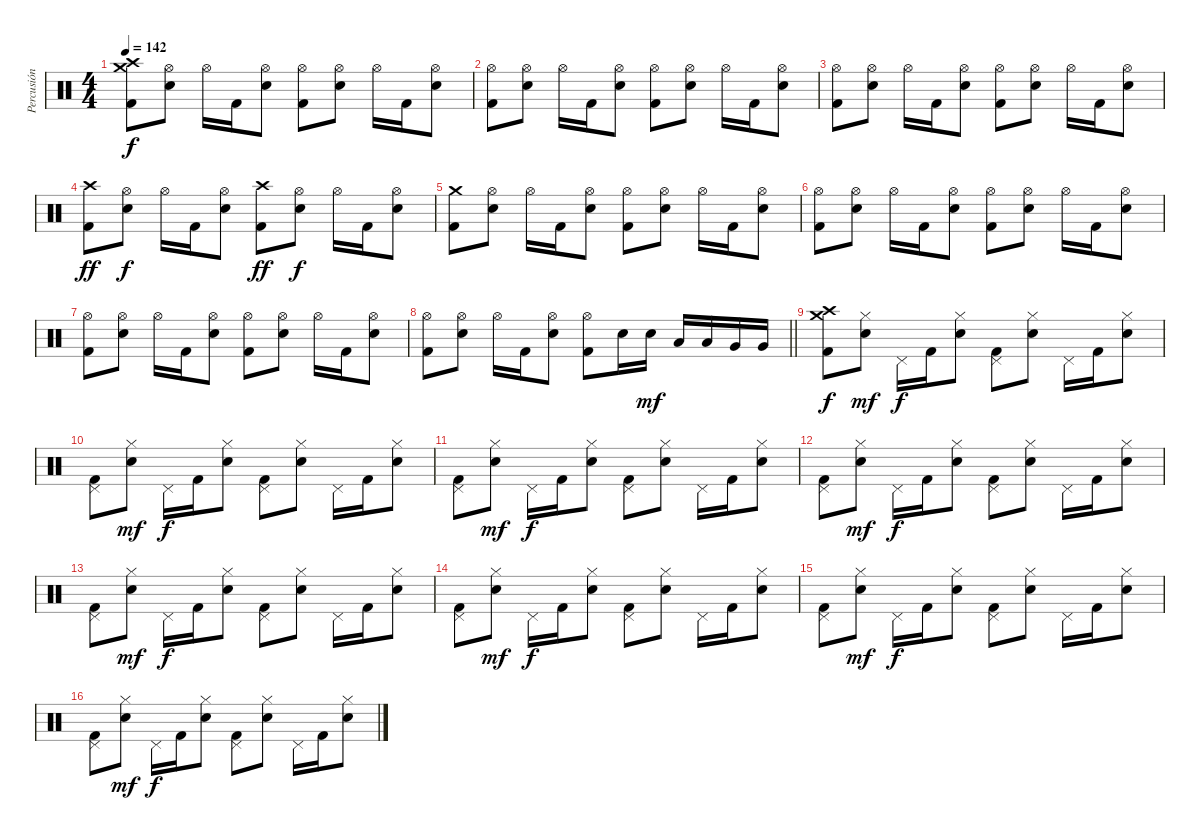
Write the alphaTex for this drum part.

\track ("Percusión" "Percusión") {instrument percussion}
\staff {score}
\articulation defaults
\ts (4 4)
\tempo 142
\clef neutral
\ks c
("Crash high (hit)" "Crash medium (hit)" "Kick (hit) 2").8{dy f} ("Hi-Hat (open)" "Electric Snare (hit)").8 "Hi-Hat (open)".16 "Kick (hit) 2".16 ("Hi-Hat (open)" "Electric Snare (hit)").8 ("Hi-Hat (open)" "Kick (hit) 2").8 ("Hi-Hat (open)" "Electric Snare (hit)").8 "Hi-Hat (open)".16 "Kick (hit) 2".16 ("Hi-Hat (open)" "Electric Snare (hit)").8 |
("Hi-Hat (open)" "Kick (hit) 2").8 ("Hi-Hat (open)" "Electric Snare (hit)").8 "Hi-Hat (open)".16 "Kick (hit) 2".16 ("Hi-Hat (open)" "Electric Snare (hit)").8 ("Hi-Hat (open)" "Kick (hit) 2").8 ("Hi-Hat (open)" "Electric Snare (hit)").8 "Hi-Hat (open)".16 "Kick (hit) 2".16 ("Hi-Hat (open)" "Electric Snare (hit)").8 |
("Hi-Hat (open)" "Kick (hit) 2").8 ("Hi-Hat (open)" "Electric Snare (hit)").8 "Hi-Hat (open)".16 "Kick (hit) 2".16 ("Hi-Hat (open)" "Electric Snare (hit)").8 ("Hi-Hat (open)" "Kick (hit) 2").8 ("Hi-Hat (open)" "Electric Snare (hit)").8 "Hi-Hat (open)".16 "Kick (hit) 2".16 ("Hi-Hat (open)" "Electric Snare (hit)").8 |
("Crash high (hit)" "Kick (hit) 2").8{dy ff} ("Hi-Hat (open)" "Electric Snare (hit)").8{dy f} "Hi-Hat (open)".16 "Kick (hit) 2".16 ("Hi-Hat (open)" "Electric Snare (hit)").8 ("Crash high (hit)" "Kick (hit) 2").8{dy ff} ("Hi-Hat (open)" "Electric Snare (hit)").8{dy f} "Hi-Hat (open)".16 "Kick (hit) 2".16 ("Hi-Hat (open)" "Electric Snare (hit)").8 |
("Crash medium (hit)" "Kick (hit) 2").8 ("Hi-Hat (open)" "Electric Snare (hit)").8 "Hi-Hat (open)".16 "Kick (hit) 2".16 ("Hi-Hat (open)" "Electric Snare (hit)").8 ("Hi-Hat (open)" "Kick (hit) 2").8 ("Hi-Hat (open)" "Electric Snare (hit)").8 "Hi-Hat (open)".16 "Kick (hit) 2".16 ("Hi-Hat (open)" "Electric Snare (hit)").8 |
("Hi-Hat (open)" "Kick (hit) 2").8 ("Hi-Hat (open)" "Electric Snare (hit)").8 "Hi-Hat (open)".16 "Kick (hit) 2".16 ("Hi-Hat (open)" "Electric Snare (hit)").8 ("Hi-Hat (open)" "Kick (hit) 2").8 ("Hi-Hat (open)" "Electric Snare (hit)").8 "Hi-Hat (open)".16 "Kick (hit) 2".16 ("Hi-Hat (open)" "Electric Snare (hit)").8 |
("Hi-Hat (open)" "Kick (hit) 2").8 ("Hi-Hat (open)" "Electric Snare (hit)").8 "Hi-Hat (open)".16 "Kick (hit) 2".16 ("Hi-Hat (open)" "Electric Snare (hit)").8 ("Hi-Hat (open)" "Kick (hit) 2").8 ("Hi-Hat (open)" "Electric Snare (hit)").8 "Hi-Hat (open)".16 "Kick (hit) 2".16 ("Hi-Hat (open)" "Electric Snare (hit)").8 |
\barLineRight lightlight
("Hi-Hat (open)" "Kick (hit) 2").8 ("Hi-Hat (open)" "Electric Snare (hit)").8 "Hi-Hat (open)".16 "Kick (hit) 2".16 ("Hi-Hat (open)" "Electric Snare (hit)").8 ("Hi-Hat (open)" "Kick (hit) 2").8 "Electric Snare (hit)".16 "Electric Snare (hit)".16{dy mf} "Low Tom (hit)".16 "Low Tom (hit)".16 "Very Low Tom (hit)".16 "Very Low Tom (hit)".16 |
\section ("" "")
("Crash high (hit)" "Crash medium (hit)" "Kick (hit) 2").8{dy f} ("Hi-Hat (closed)" "Electric Snare (hit)").8{dy mf} "Pedal Hi-Hat (hit)".16{dy f} "Kick (hit) 2".16 ("Hi-Hat (closed)" "Electric Snare (hit)").8 ("Pedal Hi-Hat (hit)" "Kick (hit) 2").8 ("Hi-Hat (closed)" "Electric Snare (hit)").8 "Pedal Hi-Hat (hit)".16 "Kick (hit) 2".16 ("Hi-Hat (closed)" "Electric Snare (hit)").8 |
("Pedal Hi-Hat (hit)" "Kick (hit) 2").8 ("Hi-Hat (closed)" "Electric Snare (hit)").8{dy mf} "Pedal Hi-Hat (hit)".16{dy f} "Kick (hit) 2".16 ("Hi-Hat (closed)" "Electric Snare (hit)").8 ("Pedal Hi-Hat (hit)" "Kick (hit) 2").8 ("Hi-Hat (closed)" "Electric Snare (hit)").8 "Pedal Hi-Hat (hit)".16 "Kick (hit) 2".16 ("Hi-Hat (closed)" "Electric Snare (hit)").8 |
("Pedal Hi-Hat (hit)" "Kick (hit) 2").8 ("Hi-Hat (closed)" "Electric Snare (hit)").8{dy mf} "Pedal Hi-Hat (hit)".16{dy f} "Kick (hit) 2".16 ("Hi-Hat (closed)" "Electric Snare (hit)").8 ("Pedal Hi-Hat (hit)" "Kick (hit) 2").8 ("Hi-Hat (closed)" "Electric Snare (hit)").8 "Pedal Hi-Hat (hit)".16 "Kick (hit) 2".16 ("Hi-Hat (closed)" "Electric Snare (hit)").8 |
("Pedal Hi-Hat (hit)" "Kick (hit) 2").8 ("Hi-Hat (closed)" "Electric Snare (hit)").8{dy mf} "Pedal Hi-Hat (hit)".16{dy f} "Kick (hit) 2".16 ("Hi-Hat (closed)" "Electric Snare (hit)").8 ("Pedal Hi-Hat (hit)" "Kick (hit) 2").8 ("Hi-Hat (closed)" "Electric Snare (hit)").8 "Pedal Hi-Hat (hit)".16 "Kick (hit) 2".16 ("Hi-Hat (closed)" "Electric Snare (hit)").8 |
("Pedal Hi-Hat (hit)" "Kick (hit) 2").8 ("Hi-Hat (closed)" "Electric Snare (hit)").8{dy mf} "Pedal Hi-Hat (hit)".16{dy f} "Kick (hit) 2".16 ("Hi-Hat (closed)" "Electric Snare (hit)").8 ("Pedal Hi-Hat (hit)" "Kick (hit) 2").8 ("Hi-Hat (closed)" "Electric Snare (hit)").8 "Pedal Hi-Hat (hit)".16 "Kick (hit) 2".16 ("Hi-Hat (closed)" "Electric Snare (hit)").8 |
("Pedal Hi-Hat (hit)" "Kick (hit) 2").8 ("Hi-Hat (closed)" "Electric Snare (hit)").8{dy mf} "Pedal Hi-Hat (hit)".16{dy f} "Kick (hit) 2".16 ("Hi-Hat (closed)" "Electric Snare (hit)").8 ("Pedal Hi-Hat (hit)" "Kick (hit) 2").8 ("Hi-Hat (closed)" "Electric Snare (hit)").8 "Pedal Hi-Hat (hit)".16 "Kick (hit) 2".16 ("Hi-Hat (closed)" "Electric Snare (hit)").8 |
("Pedal Hi-Hat (hit)" "Kick (hit) 2").8 ("Hi-Hat (closed)" "Electric Snare (hit)").8{dy mf} "Pedal Hi-Hat (hit)".16{dy f} "Kick (hit) 2".16 ("Hi-Hat (closed)" "Electric Snare (hit)").8 ("Pedal Hi-Hat (hit)" "Kick (hit) 2").8 ("Hi-Hat (closed)" "Electric Snare (hit)").8 "Pedal Hi-Hat (hit)".16 "Kick (hit) 2".16 ("Hi-Hat (closed)" "Electric Snare (hit)").8 |
("Pedal Hi-Hat (hit)" "Kick (hit) 2").8 ("Hi-Hat (closed)" "Electric Snare (hit)").8{dy mf} "Pedal Hi-Hat (hit)".16{dy f} "Kick (hit) 2".16 ("Hi-Hat (closed)" "Electric Snare (hit)").8 ("Pedal Hi-Hat (hit)" "Kick (hit) 2").8 ("Hi-Hat (closed)" "Electric Snare (hit)").8 "Pedal Hi-Hat (hit)".16 "Kick (hit) 2".16 ("Hi-Hat (closed)" "Electric Snare (hit)").8
